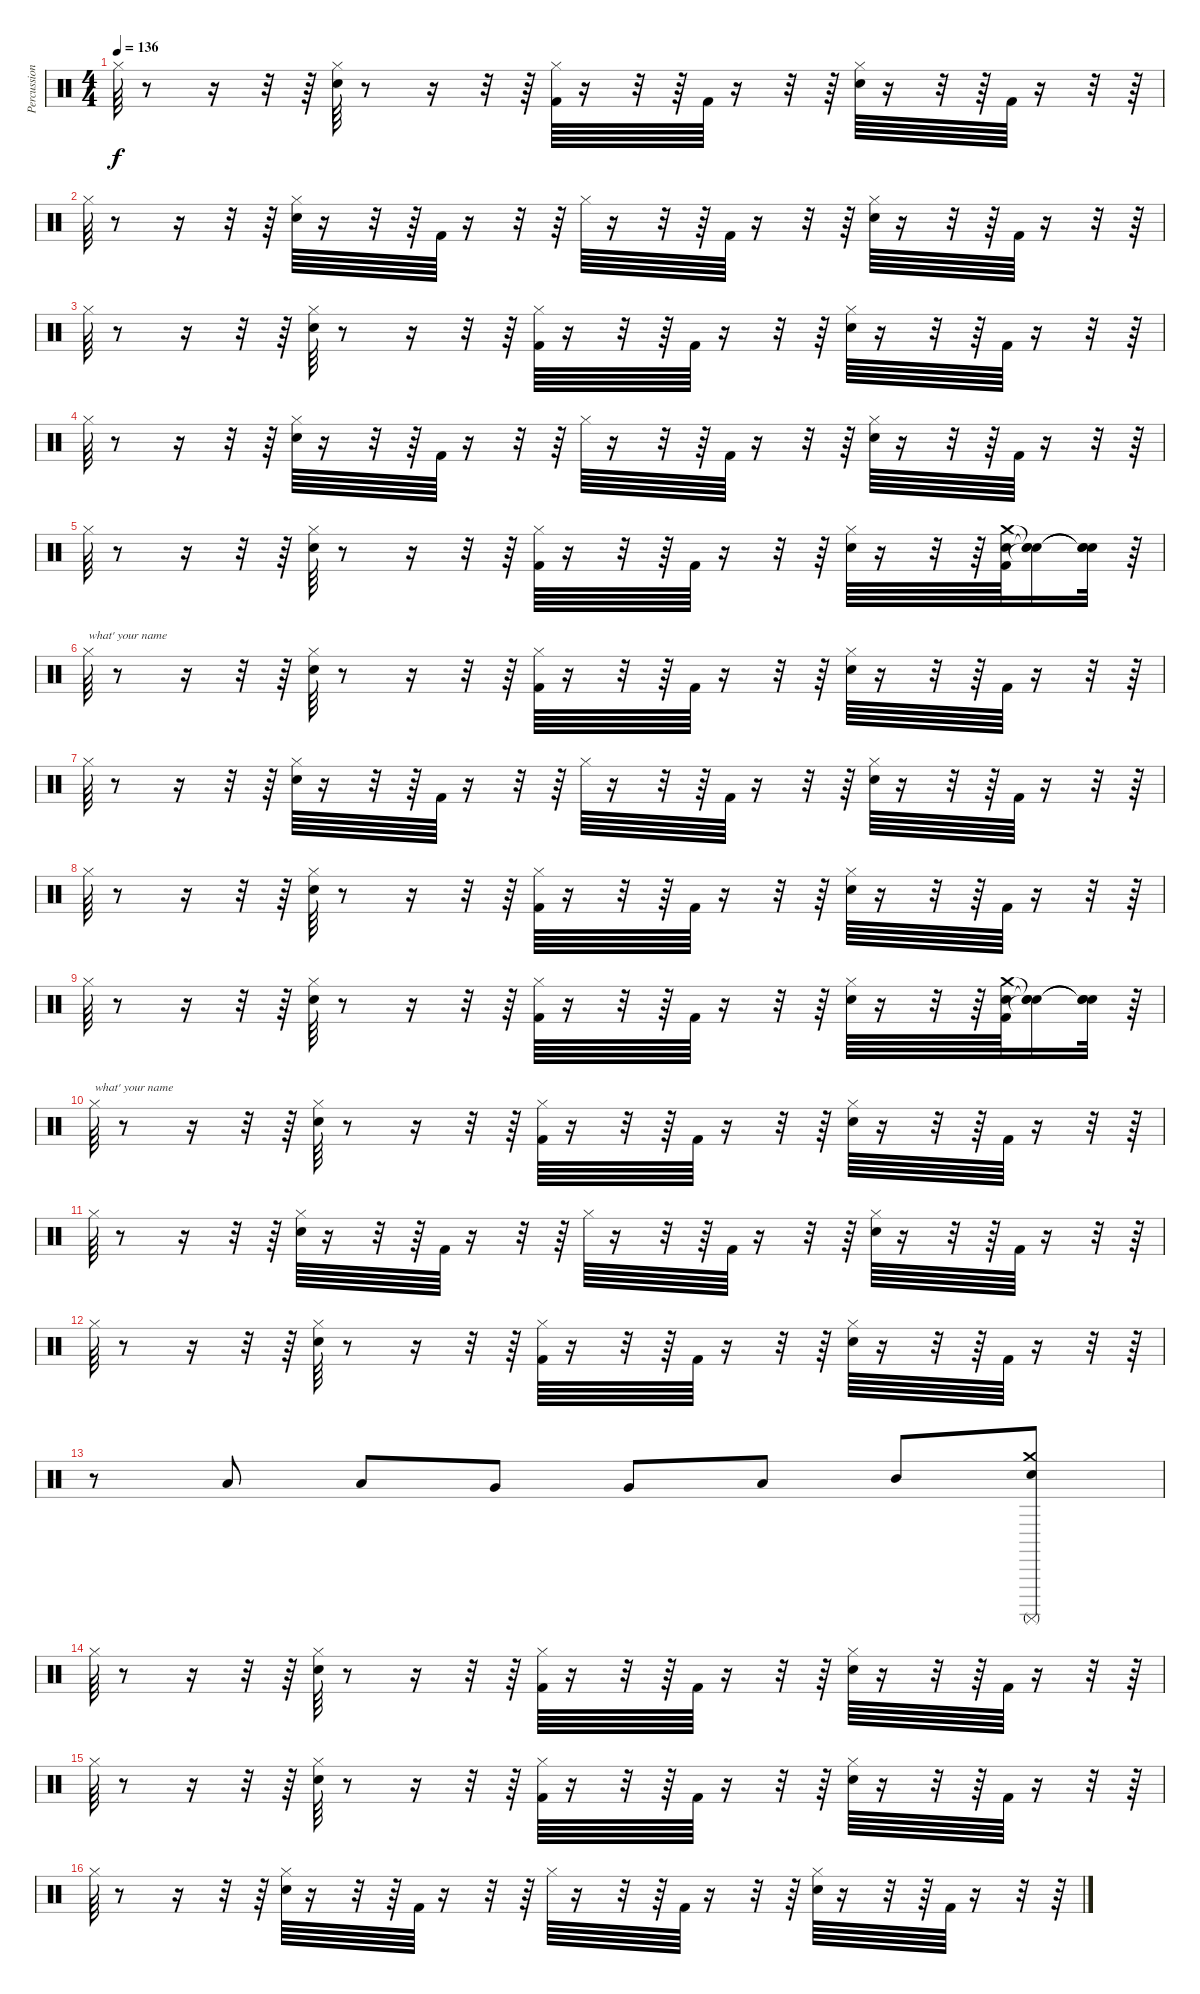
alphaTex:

\track ("Percussions" "Percussion") {instrument percussion}
\staff {score}
\articulation defaults
\ts (4 4)
\tempo 136
\clef neutral
\ks c "Hi-Hat (closed)".64{dy f}
r.8 r.16 r.32 r.64 ("Snare (hit) 2" "Hi-Hat (closed)").64 r.8 r.16 r.32 r.64 ("Kick (hit) 2" "Hi-Hat (closed)").64 r.16 r.32 r.64 "Kick (hit) 2".64 r.16 r.32 r.64 ("Snare (hit) 2" "Hi-Hat (closed)").64 r.16 r.32 r.64 "Kick (hit) 2".64 r.16 r.32 r.64 |
"Hi-Hat (closed)".64 r.8 r.16 r.32 r.64 ("Snare (hit) 2" "Hi-Hat (closed)").64 r.16 r.32 r.64 "Kick (hit) 2".64 r.16 r.32 r.64 "Hi-Hat (closed)".64 r.16 r.32 r.64 "Kick (hit) 2".64 r.16 r.32 r.64 ("Snare (hit) 2" "Hi-Hat (closed)").64 r.16 r.32 r.64 "Kick (hit) 2".64 r.16 r.32 r.64 |
"Hi-Hat (closed)".64 r.8 r.16 r.32 r.64 ("Snare (hit) 2" "Hi-Hat (closed)").64 r.8 r.16 r.32 r.64 ("Kick (hit) 2" "Hi-Hat (closed)").64 r.16 r.32 r.64 "Kick (hit) 2".64 r.16 r.32 r.64 ("Snare (hit) 2" "Hi-Hat (closed)").64 r.16 r.32 r.64 "Kick (hit) 2".64 r.16 r.32 r.64 |
"Hi-Hat (closed)".64 r.8 r.16 r.32 r.64 ("Snare (hit) 2" "Hi-Hat (closed)").64 r.16 r.32 r.64 "Kick (hit) 2".64 r.16 r.32 r.64 "Hi-Hat (closed)".64 r.16 r.32 r.64 "Kick (hit) 2".64 r.16 r.32 r.64 ("Snare (hit) 2" "Hi-Hat (closed)").64 r.16 r.32 r.64 "Kick (hit) 2".64 r.16 r.32 r.64 |
"Hi-Hat (closed)".64 r.8 r.16 r.32 r.64 ("Snare (hit) 2" "Hi-Hat (closed)").64 r.8 r.16 r.32 r.64 ("Kick (hit) 2" "Hi-Hat (closed)").64 r.16 r.32 r.64 "Kick (hit) 2".64 r.16 r.32 r.64 ("Snare (hit) 2" "Hi-Hat (closed)").64 r.16 r.32 r.64 ("Kick (hit) 2" "Snare (hit) 2" "Crash medium (hit)").64 ("Snare (hit)"{t} "Snare (hit)"{t} "Snare (hit)"{t}).16 ("Snare (hit)"{t} "Snare (hit)"{t} "Snare (hit)"{t}).32 r.64 |
"Hi-Hat (closed)".64{txt "what' your name"} r.8 r.16 r.32 r.64 ("Snare (hit) 2" "Hi-Hat (closed)").64 r.8 r.16 r.32 r.64 ("Kick (hit) 2" "Hi-Hat (closed)").64 r.16 r.32 r.64 "Kick (hit) 2".64 r.16 r.32 r.64 ("Snare (hit) 2" "Hi-Hat (closed)").64 r.16 r.32 r.64 "Kick (hit) 2".64 r.16 r.32 r.64 |
"Hi-Hat (closed)".64 r.8 r.16 r.32 r.64 ("Snare (hit) 2" "Hi-Hat (closed)").64 r.16 r.32 r.64 "Kick (hit) 2".64 r.16 r.32 r.64 "Hi-Hat (closed)".64 r.16 r.32 r.64 "Kick (hit) 2".64 r.16 r.32 r.64 ("Snare (hit) 2" "Hi-Hat (closed)").64 r.16 r.32 r.64 "Kick (hit) 2".64 r.16 r.32 r.64 |
"Hi-Hat (closed)".64 r.8 r.16 r.32 r.64 ("Snare (hit) 2" "Hi-Hat (closed)").64 r.8 r.16 r.32 r.64 ("Kick (hit) 2" "Hi-Hat (closed)").64 r.16 r.32 r.64 "Kick (hit) 2".64 r.16 r.32 r.64 ("Snare (hit) 2" "Hi-Hat (closed)").64 r.16 r.32 r.64 "Kick (hit) 2".64 r.16 r.32 r.64 |
"Hi-Hat (closed)".64 r.8 r.16 r.32 r.64 ("Snare (hit) 2" "Hi-Hat (closed)").64 r.8 r.16 r.32 r.64 ("Kick (hit) 2" "Hi-Hat (closed)").64 r.16 r.32 r.64 "Kick (hit) 2".64 r.16 r.32 r.64 ("Snare (hit) 2" "Hi-Hat (closed)").64 r.16 r.32 r.64 ("Kick (hit) 2" "Snare (hit) 2" "Crash medium (hit)").64 ("Snare (hit)"{t} "Snare (hit)"{t} "Snare (hit)"{t}).16 ("Snare (hit)"{t} "Snare (hit)"{t} "Snare (hit)"{t}).32 r.64 |
"Hi-Hat (closed)".64{txt "what' your name"} r.8 r.16 r.32 r.64 ("Snare (hit) 2" "Hi-Hat (closed)").64 r.8 r.16 r.32 r.64 ("Kick (hit) 2" "Hi-Hat (closed)").64 r.16 r.32 r.64 "Kick (hit) 2".64 r.16 r.32 r.64 ("Snare (hit) 2" "Hi-Hat (closed)").64 r.16 r.32 r.64 "Kick (hit) 2".64 r.16 r.32 r.64 |
"Hi-Hat (closed)".64 r.8 r.16 r.32 r.64 ("Snare (hit) 2" "Hi-Hat (closed)").64 r.16 r.32 r.64 "Kick (hit) 2".64 r.16 r.32 r.64 "Hi-Hat (closed)".64 r.16 r.32 r.64 "Kick (hit) 2".64 r.16 r.32 r.64 ("Snare (hit) 2" "Hi-Hat (closed)").64 r.16 r.32 r.64 "Kick (hit) 2".64 r.16 r.32 r.64 |
"Hi-Hat (closed)".64 r.8 r.16 r.32 r.64 ("Snare (hit) 2" "Hi-Hat (closed)").64 r.8 r.16 r.32 r.64 ("Kick (hit) 2" "Hi-Hat (closed)").64 r.16 r.32 r.64 "Kick (hit) 2".64 r.16 r.32 r.64 ("Snare (hit) 2" "Hi-Hat (closed)").64 r.16 r.32 r.64 "Kick (hit) 2".64 r.16 r.32 r.64 |
r.8 "Low Floor Tom (hit)".8 "Low Floor Tom (hit)".8 "Very Low Tom (hit)".8 "Very Low Tom (hit)".8 "Low Tom (hit)".8 "Mid Tom (hit)".8 ("Snare (hit) 2" "Crash medium (hit)" "Surdo (mute)").8 |
"Hi-Hat (closed)".64 r.8 r.16 r.32 r.64 ("Snare (hit) 2" "Hi-Hat (closed)").64 r.8 r.16 r.32 r.64 ("Kick (hit) 2" "Hi-Hat (closed)").64 r.16 r.32 r.64 "Kick (hit) 2".64 r.16 r.32 r.64 ("Snare (hit) 2" "Hi-Hat (closed)").64 r.16 r.32 r.64 "Kick (hit) 2".64 r.16 r.32 r.64 |
"Hi-Hat (closed)".64 r.8 r.16 r.32 r.64 ("Snare (hit) 2" "Hi-Hat (closed)").64 r.8 r.16 r.32 r.64 ("Kick (hit) 2" "Hi-Hat (closed)").64 r.16 r.32 r.64 "Kick (hit) 2".64 r.16 r.32 r.64 ("Snare (hit) 2" "Hi-Hat (closed)").64 r.16 r.32 r.64 "Kick (hit) 2".64 r.16 r.32 r.64 |
"Hi-Hat (closed)".64 r.8 r.16 r.32 r.64 ("Snare (hit) 2" "Hi-Hat (closed)").64 r.16 r.32 r.64 "Kick (hit) 2".64 r.16 r.32 r.64 "Hi-Hat (closed)".64 r.16 r.32 r.64 "Kick (hit) 2".64 r.16 r.32 r.64 ("Snare (hit) 2" "Hi-Hat (closed)").64 r.16 r.32 r.64 "Kick (hit) 2".64 r.16 r.32 r.64
